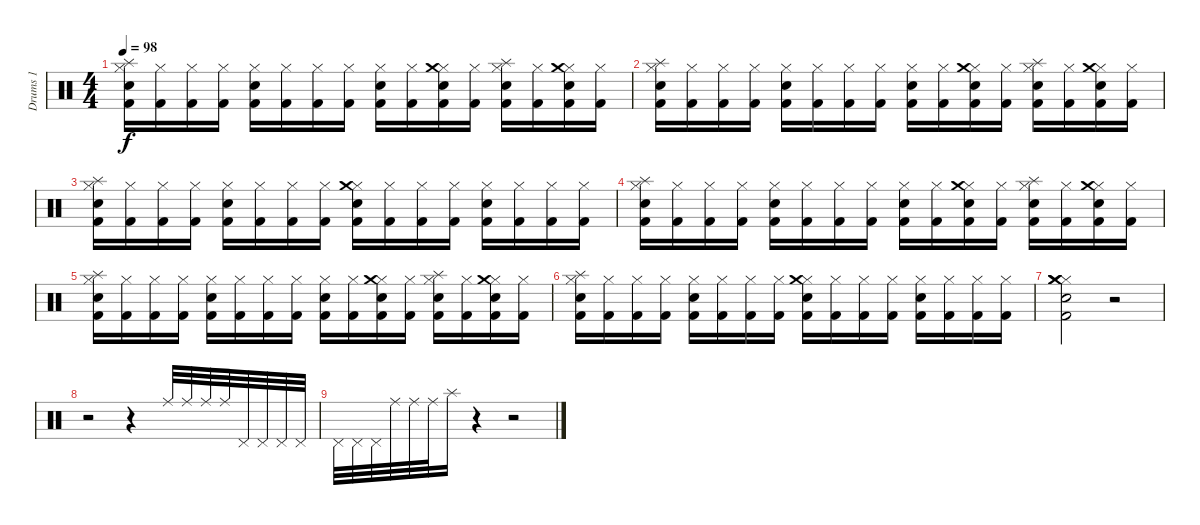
\track ("Drums 1" "Drums 1") {instrument percussion}
\staff {score}
\articulation defaults
\ts (4 4)
\tempo 98
\clef neutral
\ks c
("Hi-Hat (closed)" "Snare (hit) 2" "Kick (hit) 2" "Splash (hit)").16{dy f} ("Hi-Hat (closed)" "Kick (hit) 2").16 ("Hi-Hat (closed)" "Kick (hit) 2").16 ("Hi-Hat (closed)" "Kick (hit) 2").16 ("Hi-Hat (closed)" "Snare (hit) 2" "Kick (hit) 2").16 ("Hi-Hat (closed)" "Kick (hit) 2").16 ("Hi-Hat (closed)" "Kick (hit) 2").16 ("Hi-Hat (closed)" "Kick (hit) 2").16 ("Hi-Hat (closed)" "Snare (hit) 2" "Kick (hit) 2").16 ("Hi-Hat (closed)" "Kick (hit) 2").16 ("Hi-Hat (closed)" "Snare (hit) 2" "Kick (hit) 2" "Crash medium (hit)").16 ("Hi-Hat (closed)" "Kick (hit) 2").16 ("Hi-Hat (closed)" "Snare (hit) 2" "Kick (hit) 2" "Splash (hit)").16 ("Hi-Hat (closed)" "Kick (hit) 2").16 ("Hi-Hat (closed)" "Snare (hit) 2" "Kick (hit) 2" "Crash medium (hit)").16 ("Hi-Hat (closed)" "Kick (hit) 2").16 |
("Hi-Hat (closed)" "Snare (hit) 2" "Kick (hit) 2" "Splash (hit)").16 ("Hi-Hat (closed)" "Kick (hit) 2").16 ("Hi-Hat (closed)" "Kick (hit) 2").16 ("Hi-Hat (closed)" "Kick (hit) 2").16 ("Hi-Hat (closed)" "Snare (hit) 2" "Kick (hit) 2").16 ("Hi-Hat (closed)" "Kick (hit) 2").16 ("Hi-Hat (closed)" "Kick (hit) 2").16 ("Hi-Hat (closed)" "Kick (hit) 2").16 ("Hi-Hat (closed)" "Snare (hit) 2" "Kick (hit) 2").16 ("Hi-Hat (closed)" "Kick (hit) 2").16 ("Hi-Hat (closed)" "Snare (hit) 2" "Kick (hit) 2" "Crash medium (hit)").16 ("Hi-Hat (closed)" "Kick (hit) 2").16 ("Hi-Hat (closed)" "Snare (hit) 2" "Kick (hit) 2" "Splash (hit)").16 ("Hi-Hat (closed)" "Kick (hit) 2").16 ("Hi-Hat (closed)" "Snare (hit) 2" "Kick (hit) 2" "Crash medium (hit)").16 ("Hi-Hat (closed)" "Kick (hit) 2").16 |
("Hi-Hat (closed)" "Snare (hit) 2" "Kick (hit) 2" "Splash (hit)").16 ("Hi-Hat (closed)" "Kick (hit) 2").16 ("Hi-Hat (closed)" "Kick (hit) 2").16 ("Hi-Hat (closed)" "Kick (hit) 2").16 ("Hi-Hat (closed)" "Snare (hit) 2" "Kick (hit) 2").16 ("Hi-Hat (closed)" "Kick (hit) 2").16 ("Hi-Hat (closed)" "Kick (hit) 2").16 ("Hi-Hat (closed)" "Kick (hit) 2").16 ("Hi-Hat (closed)" "Snare (hit) 2" "Kick (hit) 2" "Crash medium (hit)").16 ("Hi-Hat (closed)" "Kick (hit) 2").16 ("Hi-Hat (closed)" "Kick (hit) 2").16 ("Hi-Hat (closed)" "Kick (hit) 2").16 ("Hi-Hat (closed)" "Snare (hit) 2" "Kick (hit) 2").16 ("Hi-Hat (closed)" "Kick (hit) 2").16 ("Hi-Hat (closed)" "Kick (hit) 2").16 ("Hi-Hat (closed)" "Kick (hit) 2").16 |
("Hi-Hat (closed)" "Snare (hit) 2" "Kick (hit) 2" "Splash (hit)").16 ("Hi-Hat (closed)" "Kick (hit) 2").16 ("Hi-Hat (closed)" "Kick (hit) 2").16 ("Hi-Hat (closed)" "Kick (hit) 2").16 ("Hi-Hat (closed)" "Snare (hit) 2" "Kick (hit) 2").16 ("Hi-Hat (closed)" "Kick (hit) 2").16 ("Hi-Hat (closed)" "Kick (hit) 2").16 ("Hi-Hat (closed)" "Kick (hit) 2").16 ("Hi-Hat (closed)" "Snare (hit) 2" "Kick (hit) 2").16 ("Hi-Hat (closed)" "Kick (hit) 2").16 ("Hi-Hat (closed)" "Snare (hit) 2" "Kick (hit) 2" "Crash medium (hit)").16 ("Hi-Hat (closed)" "Kick (hit) 2").16 ("Hi-Hat (closed)" "Snare (hit) 2" "Kick (hit) 2" "Splash (hit)").16 ("Hi-Hat (closed)" "Kick (hit) 2").16 ("Hi-Hat (closed)" "Snare (hit) 2" "Kick (hit) 2" "Crash medium (hit)").16 ("Hi-Hat (closed)" "Kick (hit) 2").16 |
("Hi-Hat (closed)" "Snare (hit) 2" "Kick (hit) 2" "Splash (hit)").16 ("Hi-Hat (closed)" "Kick (hit) 2").16 ("Hi-Hat (closed)" "Kick (hit) 2").16 ("Hi-Hat (closed)" "Kick (hit) 2").16 ("Hi-Hat (closed)" "Snare (hit) 2" "Kick (hit) 2").16 ("Hi-Hat (closed)" "Kick (hit) 2").16 ("Hi-Hat (closed)" "Kick (hit) 2").16 ("Hi-Hat (closed)" "Kick (hit) 2").16 ("Hi-Hat (closed)" "Snare (hit) 2" "Kick (hit) 2").16 ("Hi-Hat (closed)" "Kick (hit) 2").16 ("Hi-Hat (closed)" "Snare (hit) 2" "Kick (hit) 2" "Crash medium (hit)").16 ("Hi-Hat (closed)" "Kick (hit) 2").16 ("Hi-Hat (closed)" "Snare (hit) 2" "Kick (hit) 2" "Splash (hit)").16 ("Hi-Hat (closed)" "Kick (hit) 2").16 ("Hi-Hat (closed)" "Snare (hit) 2" "Kick (hit) 2" "Crash medium (hit)").16 ("Hi-Hat (closed)" "Kick (hit) 2").16 |
("Hi-Hat (closed)" "Snare (hit) 2" "Kick (hit) 2" "Splash (hit)").16 ("Hi-Hat (closed)" "Kick (hit) 2").16 ("Hi-Hat (closed)" "Kick (hit) 2").16 ("Hi-Hat (closed)" "Kick (hit) 2").16 ("Hi-Hat (closed)" "Snare (hit) 2" "Kick (hit) 2").16 ("Hi-Hat (closed)" "Kick (hit) 2").16 ("Hi-Hat (closed)" "Kick (hit) 2").16 ("Hi-Hat (closed)" "Kick (hit) 2").16 ("Hi-Hat (closed)" "Snare (hit) 2" "Kick (hit) 2" "Crash medium (hit)").16 ("Hi-Hat (closed)" "Kick (hit) 2").16 ("Hi-Hat (closed)" "Kick (hit) 2").16 ("Hi-Hat (closed)" "Kick (hit) 2").16 ("Hi-Hat (closed)" "Snare (hit) 2" "Kick (hit) 2").16 ("Hi-Hat (closed)" "Kick (hit) 2").16 ("Hi-Hat (closed)" "Kick (hit) 2").16 ("Hi-Hat (closed)" "Kick (hit) 2").16 |
("Hi-Hat (closed)" "Kick (hit) 2" "Snare (hit) 2" "Crash medium (hit)" "Crash medium (hit)").2 r.2 |
r.2 r.4 "Ride (middle)".32 "Ride (middle)".32 "Ride (middle)".32 "Ride (middle)".32 "Pedal Hi-Hat (hit)".32 "Pedal Hi-Hat (hit)".32 "Pedal Hi-Hat (hit)".32 "Pedal Hi-Hat (hit)".32 |
"Pedal Hi-Hat (hit)".32 "Pedal Hi-Hat (hit)".32 "Pedal Hi-Hat (hit)".32 "Ride (middle)".32 "Ride (middle)".32 "Ride (middle)".32 "Splash (hit)".16 r.4 r.2
